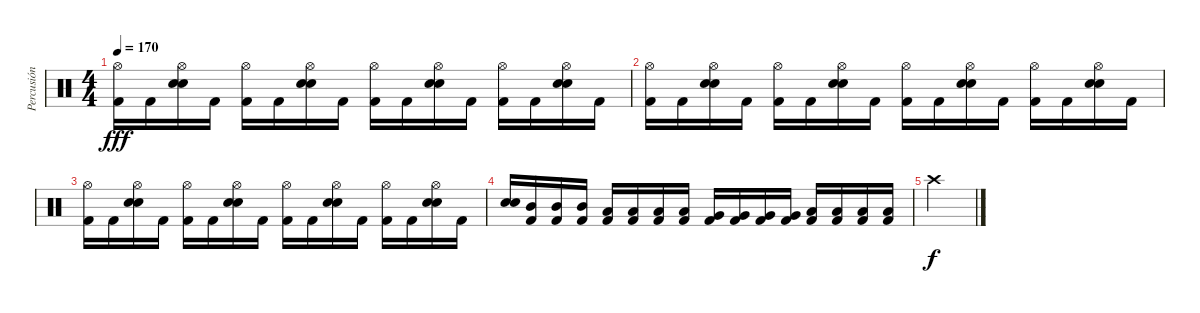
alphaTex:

\track ("Percusión" "Percusión") {instrument percussion}
\staff {score}
\articulation defaults
\ts (4 4)
\tempo 170
\clef neutral
\ks c
("Kick (hit) 2" "Hi-Hat (open)").16{dy fff} "Kick (hit) 2".16 ("Snare (hit) 2" "Electric Snare (hit)" "Hi-Hat (open)").16 "Kick (hit) 2".16 ("Kick (hit) 2" "Hi-Hat (open)").16 "Kick (hit) 2".16 ("Snare (hit) 2" "Electric Snare (hit)" "Hi-Hat (open)").16 "Kick (hit) 2".16 ("Kick (hit) 2" "Hi-Hat (open)").16 "Kick (hit) 2".16 ("Snare (hit) 2" "Electric Snare (hit)" "Hi-Hat (open)").16 "Kick (hit) 2".16 ("Kick (hit) 2" "Hi-Hat (open)").16 "Kick (hit) 2".16 ("Snare (hit) 2" "Electric Snare (hit)" "Hi-Hat (open)").16 "Kick (hit) 2".16 |
("Kick (hit) 2" "Hi-Hat (open)").16 "Kick (hit) 2".16 ("Snare (hit) 2" "Electric Snare (hit)" "Hi-Hat (open)").16 "Kick (hit) 2".16 ("Kick (hit) 2" "Hi-Hat (open)").16 "Kick (hit) 2".16 ("Snare (hit) 2" "Electric Snare (hit)" "Hi-Hat (open)").16 "Kick (hit) 2".16 ("Kick (hit) 2" "Hi-Hat (open)").16 "Kick (hit) 2".16 ("Snare (hit) 2" "Electric Snare (hit)" "Hi-Hat (open)").16 "Kick (hit) 2".16 ("Kick (hit) 2" "Hi-Hat (open)").16 "Kick (hit) 2".16 ("Snare (hit) 2" "Electric Snare (hit)" "Hi-Hat (open)").16 "Kick (hit) 2".16 |
("Kick (hit) 2" "Hi-Hat (open)").16 "Kick (hit) 2".16 ("Snare (hit) 2" "Electric Snare (hit)" "Hi-Hat (open)").16 "Kick (hit) 2".16 ("Kick (hit) 2" "Hi-Hat (open)").16 "Kick (hit) 2".16 ("Snare (hit) 2" "Electric Snare (hit)" "Hi-Hat (open)").16 "Kick (hit) 2".16 ("Kick (hit) 2" "Hi-Hat (open)").16 "Kick (hit) 2".16 ("Snare (hit) 2" "Electric Snare (hit)" "Hi-Hat (open)").16 "Kick (hit) 2".16 ("Kick (hit) 2" "Hi-Hat (open)").16 "Kick (hit) 2".16 ("Snare (hit) 2" "Electric Snare (hit)" "Hi-Hat (open)").16 "Kick (hit) 2".16 |
("Snare (hit) 2" "Electric Snare (hit)").16 ("Mid Tom (hit)" "Kick (hit) 2").16 ("Mid Tom (hit)" "Kick (hit) 2").16 ("Mid Tom (hit)" "Kick (hit) 2").16 ("Low Tom (hit)" "Kick (hit) 2").16 ("Low Tom (hit)" "Kick (hit) 2").16 ("Low Tom (hit)" "Kick (hit) 2").16 ("Low Tom (hit)" "Kick (hit) 2").16 ("Very Low Tom (hit)" "Kick (hit) 2").16 ("Very Low Tom (hit)" "Kick (hit) 2").16 ("Very Low Tom (hit)" "Kick (hit) 2").16 ("Very Low Tom (hit)" "Kick (hit) 2").16 ("Low Floor Tom (hit)" "Kick (hit) 2").16 ("Low Floor Tom (hit)" "Kick (hit) 2").16 ("Low Floor Tom (hit)" "Kick (hit) 2").16 ("Low Floor Tom (hit)" "Kick (hit) 2").16 |
"Crash high (hit)".2{dy f}
